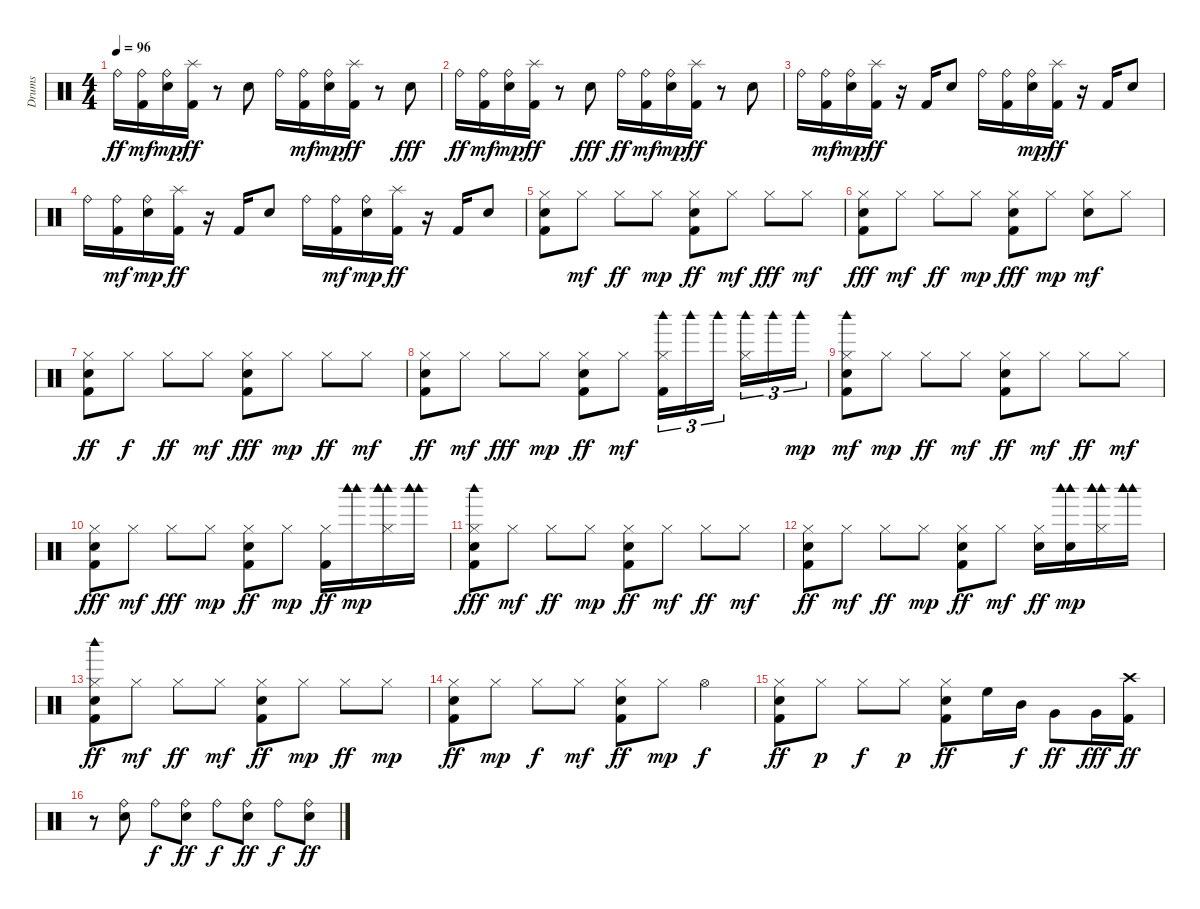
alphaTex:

\track ("Drums" "Drums") {instrument percussion}
\staff {score}
\articulation defaults
\ts (4 4)
\tempo 96
\clef neutral
\ks c "Ride (bell)".16{dy ff}
("Kick (hit) 2" "Ride (bell)").16{dy mf} ("Electric Snare (hit)" "Ride (bell)").16{dy mp} ("Splash (hit)" "Kick (hit) 2").16{dy ff} r.8 "Electric Snare (hit)".8 "Ride (bell)".16 ("Kick (hit) 2" "Ride (bell)").16{dy mf} ("Electric Snare (hit)" "Ride (bell)").16{dy mp} ("Splash (hit)" "Kick (hit) 2").16{dy ff} r.8 "Electric Snare (hit)".8{dy fff} |
"Ride (bell)".16{dy ff} ("Kick (hit) 2" "Ride (bell)").16{dy mf} ("Electric Snare (hit)" "Ride (bell)").16{dy mp} ("Splash (hit)" "Kick (hit) 2").16{dy ff} r.8 "Electric Snare (hit)".8{dy fff} "Ride (bell)".16{dy ff} ("Kick (hit) 2" "Ride (bell)").16{dy mf} ("Electric Snare (hit)" "Ride (bell)").16{dy mp} ("Splash (hit)" "Kick (hit) 2").16{dy ff} r.8 "Electric Snare (hit)".8 |
"Ride (bell)".16 ("Kick (hit) 2" "Ride (bell)").16{dy mf} ("Electric Snare (hit)" "Ride (bell)").16{dy mp} ("Splash (hit)" "Kick (hit) 2").16{dy ff} r.16 "Kick (hit) 2".16 "Electric Snare (hit)".8 "Ride (bell)".16 ("Ride (bell)" "Kick (hit) 2").16 ("Electric Snare (hit)" "Ride (bell)").16{dy mp} ("Splash (hit)" "Kick (hit) 2").16{dy ff} r.16 "Kick (hit) 2".16 "Electric Snare (hit)".8 |
"Ride (bell)".16 ("Kick (hit) 2" "Ride (bell)").16{dy mf} ("Electric Snare (hit)" "Ride (bell)").16{dy mp} ("Splash (hit)" "Kick (hit) 2").16{dy ff} r.16 "Kick (hit) 2".16 "Electric Snare (hit)".8 "Ride (bell)".16 ("Kick (hit) 2" "Ride (bell)").16{dy mf} ("Electric Snare (hit)" "Ride (bell)").16{dy mp} ("Splash (hit)" "Kick (hit) 2").16{dy ff} r.16 "Kick (hit) 2".16 "Electric Snare (hit)".8 |
("Kick (hit) 2" "Hi-Hat (closed)" "Electric Snare (hit)").8 "Hi-Hat (closed)".8{dy mf} "Hi-Hat (closed)".8{dy ff} "Hi-Hat (closed)".8{dy mp} ("Electric Snare (hit)" "Hi-Hat (closed)" "Kick (hit) 2").8{dy ff} "Hi-Hat (closed)".8{dy mf} "Hi-Hat (closed)".8{dy fff} "Hi-Hat (closed)".8{dy mf} |
("Electric Snare (hit)" "Kick (hit) 2" "Hi-Hat (closed)").8{dy fff} "Hi-Hat (closed)".8{dy mf} "Hi-Hat (closed)".8{dy ff} "Hi-Hat (closed)".8{dy mp} ("Kick (hit) 2" "Electric Snare (hit)" "Hi-Hat (closed)").8{dy fff} "Hi-Hat (closed)".8{dy mp} ("Hi-Hat (closed)" "Electric Snare (hit)").8{dy mf} "Hi-Hat (closed)".8 |
("Electric Snare (hit)" "Hi-Hat (closed)" "Kick (hit) 2").8{dy ff} "Hi-Hat (closed)".8{dy f} "Hi-Hat (closed)".8{dy ff} "Hi-Hat (closed)".8{dy mf} ("Electric Snare (hit)" "Kick (hit) 2" "Hi-Hat (closed)").8{dy fff} "Hi-Hat (closed)".8{dy mp} "Hi-Hat (closed)".8{dy ff} "Hi-Hat (closed)".8{dy mf} |
("Kick (hit) 2" "Electric Snare (hit)" "Hi-Hat (closed)").8{dy ff} "Hi-Hat (closed)".8{dy mf} "Hi-Hat (closed)".8{dy fff} "Hi-Hat (closed)".8{dy mp} ("Kick (hit) 2" "Electric Snare (hit)" "Hi-Hat (closed)").8{dy ff} "Hi-Hat (closed)".8{dy mf} ("Hi-Hat (closed)" "Kick (hit) 2" "Woodblock high (hit)").16{tu (3 2)} "Woodblock high (hit)".16{tu (3 2)} "Woodblock high (hit)".16{tu (3 2) beam splitsecondary} ("Hi-Hat (closed)" "Woodblock high (hit)").16{tu (3 2)} "Woodblock high (hit)".16{tu (3 2)} "Woodblock high (hit)".16{tu (3 2) dy mp} |
("Kick (hit) 2" "Electric Snare (hit)" "Hi-Hat (closed)" "Woodblock high (hit)").8{dy mf} "Hi-Hat (closed)".8{dy mp} "Hi-Hat (closed)".8{dy ff} "Hi-Hat (closed)".8{dy mf} ("Kick (hit) 2" "Electric Snare (hit)" "Hi-Hat (closed)").8{dy ff} "Hi-Hat (closed)".8{dy mf} "Hi-Hat (closed)".8{dy ff} "Hi-Hat (closed)".8{dy mf} |
("Electric Snare (hit)" "Kick (hit) 2" "Hi-Hat (closed)").8{dy fff} "Hi-Hat (closed)".8{dy mf} "Hi-Hat (closed)".8{dy fff} "Hi-Hat (closed)".8{dy mp} ("Kick (hit) 2" "Electric Snare (hit)" "Hi-Hat (closed)").8{dy ff} "Hi-Hat (closed)".8{dy mp} ("Kick (hit) 2" "Hi-Hat (closed)").16{dy ff} ("Woodblock high (hit)" "Woodblock high (hit)" "Woodblock high (hit)").16{dy mp} ("Woodblock high (hit)" "Hi-Hat (closed)" "Woodblock high (hit)" "Woodblock high (hit)" "Woodblock high (hit)").16 ("Woodblock high (hit)" "Woodblock high (hit)" "Woodblock high (hit)" "Woodblock high (hit)").16 |
("Woodblock high (hit)" "Electric Snare (hit)" "Kick (hit) 2" "Hi-Hat (closed)").8{dy fff} "Hi-Hat (closed)".8{dy mf} "Hi-Hat (closed)".8{dy ff} "Hi-Hat (closed)".8{dy mp} ("Electric Snare (hit)" "Kick (hit) 2" "Hi-Hat (closed)").8{dy ff} "Hi-Hat (closed)".8{dy mf} "Hi-Hat (closed)".8{dy ff} "Hi-Hat (closed)".8{dy mf} |
("Electric Snare (hit)" "Kick (hit) 2" "Hi-Hat (closed)").8{dy ff} "Hi-Hat (closed)".8{dy mf} "Hi-Hat (closed)".8{dy ff} "Hi-Hat (closed)".8{dy mp} ("Kick (hit) 2" "Electric Snare (hit)" "Hi-Hat (closed)").8{dy ff} "Hi-Hat (closed)".8{dy mf} ("Electric Snare (hit)" "Hi-Hat (closed)").16{dy ff} ("Electric Snare (hit)" "Woodblock high (hit)" "Woodblock high (hit)" "Woodblock high (hit)").16{dy mp} ("Woodblock high (hit)" "Hi-Hat (closed)" "Woodblock high (hit)" "Woodblock high (hit)" "Woodblock high (hit)").16 ("Woodblock high (hit)" "Woodblock high (hit)" "Woodblock high (hit)" "Woodblock high (hit)").16 |
("Woodblock high (hit)" "Kick (hit) 2" "Electric Snare (hit)" "Hi-Hat (closed)").8{dy ff} "Hi-Hat (closed)".8{dy mf} "Hi-Hat (closed)".8{dy ff} "Hi-Hat (closed)".8{dy mf} ("Electric Snare (hit)" "Kick (hit) 2" "Hi-Hat (closed)").8{dy ff} "Hi-Hat (closed)".8{dy mp} "Hi-Hat (closed)".8{dy ff} "Hi-Hat (closed)".8{dy mp} |
("Electric Snare (hit)" "Kick (hit) 2" "Hi-Hat (closed)").8{dy ff} "Hi-Hat (closed)".8{dy mp} "Hi-Hat (closed)".8{dy f} "Hi-Hat (closed)".8{dy mf} ("Electric Snare (hit)" "Kick (hit) 2" "Hi-Hat (closed)").8{dy ff} "Hi-Hat (closed)".8{dy mp} "Hi-Hat (open)".4{dy f} |
("Electric Snare (hit)" "Kick (hit) 2" "Hi-Hat (closed)").8{dy ff} "Hi-Hat (closed)".8{dy p} "Hi-Hat (closed)".8{dy f} "Hi-Hat (closed)".8{dy p} ("Kick (hit) 2" "Electric Snare (hit)" "Hi-Hat (closed)").8{dy ff} "High Floor Tom (hit)".16 "Mid Tom (hit)".16{dy f} "Very Low Tom (hit)".8{dy ff} "Very Low Tom (hit)".16{dy fff} ("Kick (hit) 2" "Crash high (hit)").16{dy ff} |
r.8 ("Electric Snare (hit)" "Ride (bell)").8 "Ride (bell)".8{dy f} ("Electric Snare (hit)" "Ride (bell)").8{dy ff} "Ride (bell)".8{dy f} ("Electric Snare (hit)" "Ride (bell)").8{dy ff} "Ride (bell)".8{dy f} ("Electric Snare (hit)" "Ride (bell)").8{dy ff}
